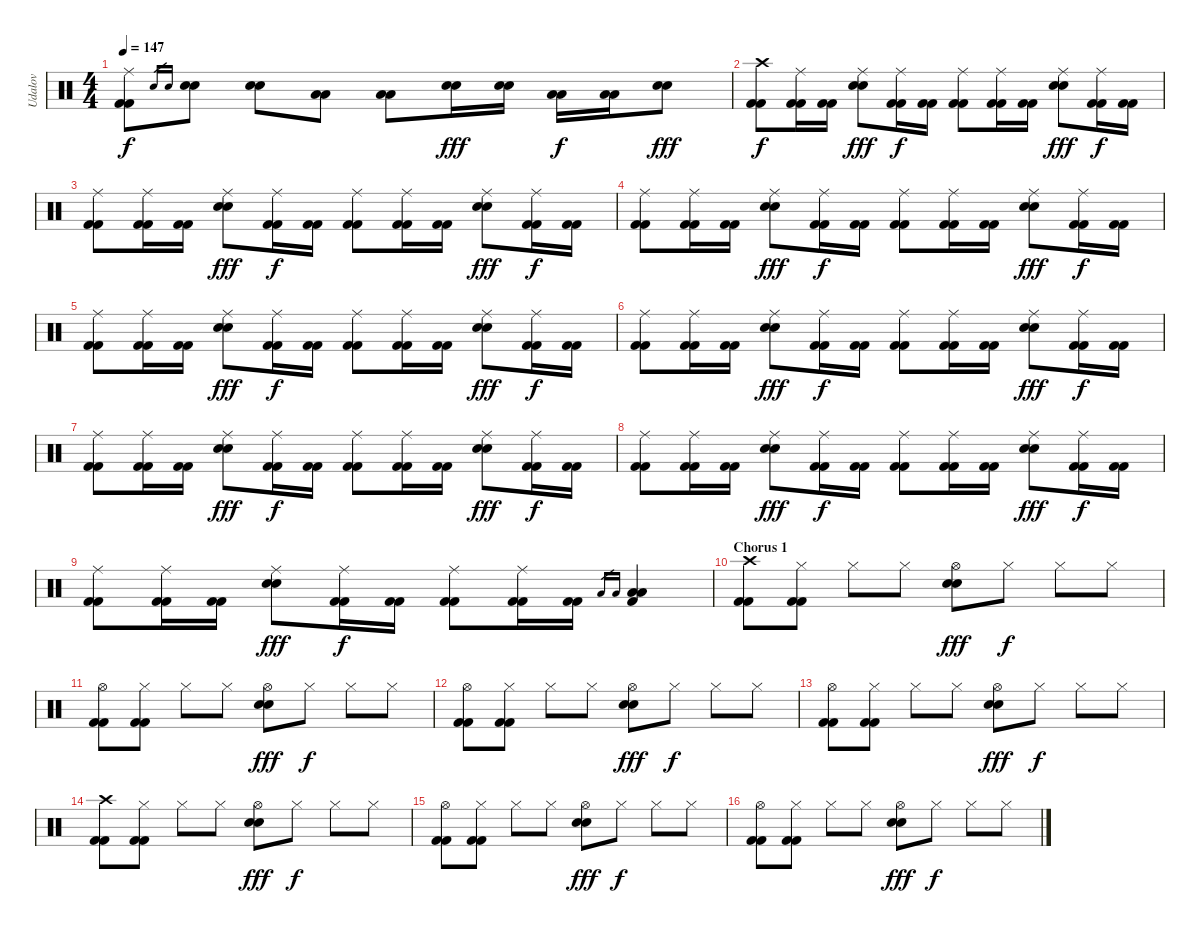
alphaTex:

\track ("Udalov" "Udalov") {instrument percussion}
\staff {score}
\articulation defaults
\ts (4 4)
\tempo 147
\clef neutral
\ks c
("Ride (middle)" "Kick (hit) 2" "Kick (hit) 2").8{dy f} "Electric Snare (hit)".16{gr} "Electric Snare (hit)".16{gr} ("Electric Snare (hit)" "Electric Snare (hit)").8 ("Electric Snare (hit)" "Electric Snare (hit)").8 ("Low Tom (hit)" "Low Tom (hit)").8 ("Low Tom (hit)" "Low Tom (hit)").8 ("Electric Snare (hit)" "Electric Snare (hit)").16{dy fff} ("Electric Snare (hit)" "Electric Snare (hit)").16 ("Low Tom (hit)" "Low Tom (hit)").16{dy f} ("Low Tom (hit)" "Low Tom (hit)").16 ("Electric Snare (hit)" "Electric Snare (hit)").8{dy fff} |
("Crash high (hit)" "Kick (hit) 2" "Kick (hit) 2").8{dy f} ("Ride (middle)" "Kick (hit) 2" "Kick (hit) 2").16 ("Kick (hit) 2" "Kick (hit) 2").16 ("Ride (middle)" "Electric Snare (hit)" "Electric Snare (hit)").8{dy fff} ("Ride (middle)" "Kick (hit) 2" "Kick (hit) 2").16{dy f} ("Kick (hit) 2" "Kick (hit) 2").16 ("Ride (middle)" "Kick (hit) 2" "Kick (hit) 2").8 ("Ride (middle)" "Kick (hit) 2" "Kick (hit) 2").16 ("Kick (hit) 2" "Kick (hit) 2").16 ("Ride (middle)" "Electric Snare (hit)" "Electric Snare (hit)").8{dy fff} ("Ride (middle)" "Kick (hit) 2" "Kick (hit) 2").16{dy f} ("Kick (hit) 2" "Kick (hit) 2").16 |
("Ride (middle)" "Kick (hit) 2" "Kick (hit) 2").8 ("Ride (middle)" "Kick (hit) 2" "Kick (hit) 2").16 ("Kick (hit) 2" "Kick (hit) 2").16 ("Ride (middle)" "Electric Snare (hit)" "Electric Snare (hit)").8{dy fff} ("Ride (middle)" "Kick (hit) 2" "Kick (hit) 2").16{dy f} ("Kick (hit) 2" "Kick (hit) 2").16 ("Ride (middle)" "Kick (hit) 2" "Kick (hit) 2").8 ("Ride (middle)" "Kick (hit) 2" "Kick (hit) 2").16 ("Kick (hit) 2" "Kick (hit) 2").16 ("Ride (middle)" "Electric Snare (hit)" "Electric Snare (hit)").8{dy fff} ("Ride (middle)" "Kick (hit) 2" "Kick (hit) 2").16{dy f} ("Kick (hit) 2" "Kick (hit) 2").16 |
("Ride (middle)" "Kick (hit) 2" "Kick (hit) 2").8 ("Ride (middle)" "Kick (hit) 2" "Kick (hit) 2").16 ("Kick (hit) 2" "Kick (hit) 2").16 ("Ride (middle)" "Electric Snare (hit)" "Electric Snare (hit)").8{dy fff} ("Ride (middle)" "Kick (hit) 2" "Kick (hit) 2").16{dy f} ("Kick (hit) 2" "Kick (hit) 2").16 ("Ride (middle)" "Kick (hit) 2" "Kick (hit) 2").8 ("Ride (middle)" "Kick (hit) 2" "Kick (hit) 2").16 ("Kick (hit) 2" "Kick (hit) 2").16 ("Ride (middle)" "Electric Snare (hit)" "Electric Snare (hit)").8{dy fff} ("Ride (middle)" "Kick (hit) 2" "Kick (hit) 2").16{dy f} ("Kick (hit) 2" "Kick (hit) 2").16 |
("Ride (middle)" "Kick (hit) 2" "Kick (hit) 2").8 ("Ride (middle)" "Kick (hit) 2" "Kick (hit) 2").16 ("Kick (hit) 2" "Kick (hit) 2").16 ("Ride (middle)" "Electric Snare (hit)" "Electric Snare (hit)").8{dy fff} ("Ride (middle)" "Kick (hit) 2" "Kick (hit) 2").16{dy f} ("Kick (hit) 2" "Kick (hit) 2").16 ("Ride (middle)" "Kick (hit) 2" "Kick (hit) 2").8 ("Ride (middle)" "Kick (hit) 2" "Kick (hit) 2").16 ("Kick (hit) 2" "Kick (hit) 2").16 ("Ride (middle)" "Electric Snare (hit)" "Electric Snare (hit)").8{dy fff} ("Ride (middle)" "Kick (hit) 2" "Kick (hit) 2").16{dy f} ("Kick (hit) 2" "Kick (hit) 2").16 |
("Ride (middle)" "Kick (hit) 2" "Kick (hit) 2").8 ("Ride (middle)" "Kick (hit) 2" "Kick (hit) 2").16 ("Kick (hit) 2" "Kick (hit) 2").16 ("Ride (middle)" "Electric Snare (hit)" "Electric Snare (hit)").8{dy fff} ("Ride (middle)" "Kick (hit) 2" "Kick (hit) 2").16{dy f} ("Kick (hit) 2" "Kick (hit) 2").16 ("Ride (middle)" "Kick (hit) 2" "Kick (hit) 2").8 ("Ride (middle)" "Kick (hit) 2" "Kick (hit) 2").16 ("Kick (hit) 2" "Kick (hit) 2").16 ("Ride (middle)" "Electric Snare (hit)" "Electric Snare (hit)").8{dy fff} ("Ride (middle)" "Kick (hit) 2" "Kick (hit) 2").16{dy f} ("Kick (hit) 2" "Kick (hit) 2").16 |
("Ride (middle)" "Kick (hit) 2" "Kick (hit) 2").8 ("Ride (middle)" "Kick (hit) 2" "Kick (hit) 2").16 ("Kick (hit) 2" "Kick (hit) 2").16 ("Ride (middle)" "Electric Snare (hit)" "Electric Snare (hit)").8{dy fff} ("Ride (middle)" "Kick (hit) 2" "Kick (hit) 2").16{dy f} ("Kick (hit) 2" "Kick (hit) 2").16 ("Ride (middle)" "Kick (hit) 2" "Kick (hit) 2").8 ("Ride (middle)" "Kick (hit) 2" "Kick (hit) 2").16 ("Kick (hit) 2" "Kick (hit) 2").16 ("Ride (middle)" "Electric Snare (hit)" "Electric Snare (hit)").8{dy fff} ("Ride (middle)" "Kick (hit) 2" "Kick (hit) 2").16{dy f} ("Kick (hit) 2" "Kick (hit) 2").16 |
("Ride (middle)" "Kick (hit) 2" "Kick (hit) 2").8 ("Ride (middle)" "Kick (hit) 2" "Kick (hit) 2").16 ("Kick (hit) 2" "Kick (hit) 2").16 ("Ride (middle)" "Electric Snare (hit)" "Electric Snare (hit)").8{dy fff} ("Ride (middle)" "Kick (hit) 2" "Kick (hit) 2").16{dy f} ("Kick (hit) 2" "Kick (hit) 2").16 ("Ride (middle)" "Kick (hit) 2" "Kick (hit) 2").8 ("Ride (middle)" "Kick (hit) 2" "Kick (hit) 2").16 ("Kick (hit) 2" "Kick (hit) 2").16 ("Ride (middle)" "Electric Snare (hit)" "Electric Snare (hit)").8{dy fff} ("Ride (middle)" "Kick (hit) 2" "Kick (hit) 2").16{dy f} ("Kick (hit) 2" "Kick (hit) 2").16 |
("Ride (middle)" "Kick (hit) 2" "Kick (hit) 2").8 ("Ride (middle)" "Kick (hit) 2" "Kick (hit) 2").16 ("Kick (hit) 2" "Kick (hit) 2").16 ("Ride (middle)" "Electric Snare (hit)" "Electric Snare (hit)").8{dy fff} ("Ride (middle)" "Kick (hit) 2" "Kick (hit) 2").16{dy f} ("Kick (hit) 2" "Kick (hit) 2").16 ("Ride (middle)" "Kick (hit) 2" "Kick (hit) 2").8 ("Ride (middle)" "Kick (hit) 2" "Kick (hit) 2").16 ("Kick (hit) 2" "Kick (hit) 2").16 "Low Tom (hit)".16{gr} "Low Tom (hit)".16{gr} ("Low Tom (hit)" "Low Tom (hit)" "Kick (hit) 2").4 |
\section ("" "Chorus 1")
("Crash high (hit)" "Kick (hit) 2" "Kick (hit) 2").8 ("Hi-Hat (closed)" "Kick (hit) 2" "Kick (hit) 2").8 "Hi-Hat (closed)".8 "Hi-Hat (closed)".8 ("Hi-Hat (open)" "Electric Snare (hit)" "Electric Snare (hit)").8{dy fff} "Hi-Hat (closed)".8{dy f} "Hi-Hat (closed)".8 "Hi-Hat (closed)".8 |
("Hi-Hat (open)" "Kick (hit) 2" "Kick (hit) 2").8 ("Hi-Hat (closed)" "Kick (hit) 2" "Kick (hit) 2").8 "Hi-Hat (closed)".8 "Hi-Hat (closed)".8 ("Hi-Hat (open)" "Electric Snare (hit)" "Electric Snare (hit)").8{dy fff} "Hi-Hat (closed)".8{dy f} "Hi-Hat (closed)".8 "Hi-Hat (closed)".8 |
("Hi-Hat (open)" "Kick (hit) 2" "Kick (hit) 2").8 ("Hi-Hat (closed)" "Kick (hit) 2" "Kick (hit) 2").8 "Hi-Hat (closed)".8 "Hi-Hat (closed)".8 ("Hi-Hat (open)" "Electric Snare (hit)" "Electric Snare (hit)").8{dy fff} "Hi-Hat (closed)".8{dy f} "Hi-Hat (closed)".8 "Hi-Hat (closed)".8 |
("Hi-Hat (open)" "Kick (hit) 2" "Kick (hit) 2").8 ("Hi-Hat (closed)" "Kick (hit) 2" "Kick (hit) 2").8 "Hi-Hat (closed)".8 "Hi-Hat (closed)".8 ("Hi-Hat (open)" "Electric Snare (hit)" "Electric Snare (hit)").8{dy fff} "Hi-Hat (closed)".8{dy f} "Hi-Hat (closed)".8 "Hi-Hat (closed)".8 |
("Crash high (hit)" "Kick (hit) 2" "Kick (hit) 2").8 ("Hi-Hat (closed)" "Kick (hit) 2" "Kick (hit) 2").8 "Hi-Hat (closed)".8 "Hi-Hat (closed)".8 ("Hi-Hat (open)" "Electric Snare (hit)" "Electric Snare (hit)").8{dy fff} "Hi-Hat (closed)".8{dy f} "Hi-Hat (closed)".8 "Hi-Hat (closed)".8 |
("Hi-Hat (open)" "Kick (hit) 2" "Kick (hit) 2").8 ("Hi-Hat (closed)" "Kick (hit) 2" "Kick (hit) 2").8 "Hi-Hat (closed)".8 "Hi-Hat (closed)".8 ("Hi-Hat (open)" "Electric Snare (hit)" "Electric Snare (hit)").8{dy fff} "Hi-Hat (closed)".8{dy f} "Hi-Hat (closed)".8 "Hi-Hat (closed)".8 |
("Hi-Hat (open)" "Kick (hit) 2" "Kick (hit) 2").8 ("Hi-Hat (closed)" "Kick (hit) 2" "Kick (hit) 2").8 "Hi-Hat (closed)".8 "Hi-Hat (closed)".8 ("Hi-Hat (open)" "Electric Snare (hit)" "Electric Snare (hit)").8{dy fff} "Hi-Hat (closed)".8{dy f} "Hi-Hat (closed)".8 "Hi-Hat (closed)".8
